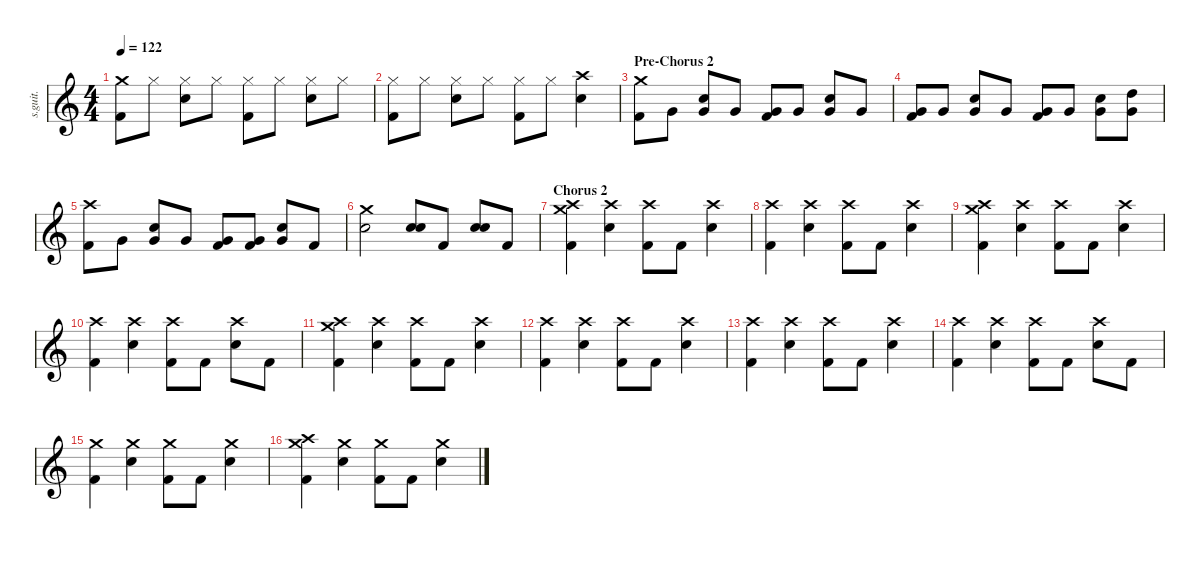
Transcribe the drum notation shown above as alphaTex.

\defaultSystemsLayout 4
\hideDynamics
\bracketExtendMode nobrackets
\track ("Neil Sanderson" "s.guit.") {instrument percussion}
\staff {score}
\articulation defaults
\ts (4 4)
\tempo 122
\clef g2
\ks c
("Crash medium (hit)" "Kick (hit) 2").8{lyrics (0 "") lyrics (1 "") lyrics (2 "") lyrics (3 "") lyrics (4 "") dy f} "Hi-Hat (closed)".8{lyrics (0 "") lyrics (1 "") lyrics (2 "") lyrics (3 "") lyrics (4 "")} ("Hi-Hat (closed)" "Snare (hit) 2").8{lyrics (0 "") lyrics (1 "") lyrics (2 "") lyrics (3 "") lyrics (4 "")} "Hi-Hat (closed)".8{lyrics (0 "") lyrics (1 "") lyrics (2 "") lyrics (3 "") lyrics (4 "")} ("Hi-Hat (closed)" "Kick (hit) 2").8{lyrics (0 "") lyrics (1 "") lyrics (2 "") lyrics (3 "") lyrics (4 "")} "Hi-Hat (closed)".8{lyrics (0 "") lyrics (1 "") lyrics (2 "") lyrics (3 "") lyrics (4 "")} ("Hi-Hat (closed)" "Snare (hit) 2").8{lyrics (0 "") lyrics (1 "") lyrics (2 "") lyrics (3 "") lyrics (4 "")} "Hi-Hat (closed)".8{lyrics (0 "") lyrics (1 "") lyrics (2 "") lyrics (3 "") lyrics (4 "")} |
("Hi-Hat (closed)" "Kick (hit) 2").8{lyrics (0 "") lyrics (1 "") lyrics (2 "") lyrics (3 "") lyrics (4 "")} "Hi-Hat (closed)".8{lyrics (0 "") lyrics (1 "") lyrics (2 "") lyrics (3 "") lyrics (4 "")} ("Hi-Hat (closed)" "Snare (hit) 2").8{lyrics (0 "") lyrics (1 "") lyrics (2 "") lyrics (3 "") lyrics (4 "")} "Hi-Hat (closed)".8{lyrics (0 "") lyrics (1 "") lyrics (2 "") lyrics (3 "") lyrics (4 "")} ("Hi-Hat (closed)" "Kick (hit) 2").8{lyrics (0 "") lyrics (1 "") lyrics (2 "") lyrics (3 "") lyrics (4 "")} "Hi-Hat (closed)".8{lyrics (0 "") lyrics (1 "") lyrics (2 "") lyrics (3 "") lyrics (4 "")} ("Crash high (hit)" "Snare (hit) 2").4{lyrics (0 "") lyrics (1 "") lyrics (2 "") lyrics (3 "") lyrics (4 "")} |
\section ("" "Pre-Chorus 2")
("Crash medium (hit)" "Kick (hit) 2").8{lyrics (0 "") lyrics (1 "") lyrics (2 "") lyrics (3 "") lyrics (4 "")} "Very Low Tom (hit)".8{lyrics (0 "") lyrics (1 "") lyrics (2 "") lyrics (3 "") lyrics (4 "")} ("Snare (hit) 2" "Very Low Tom (hit)").8{lyrics (0 "") lyrics (1 "") lyrics (2 "") lyrics (3 "") lyrics (4 "")} "Very Low Tom (hit)".8{lyrics (0 "") lyrics (1 "") lyrics (2 "") lyrics (3 "") lyrics (4 "")} ("Very Low Tom (hit)" "Kick (hit) 2").8{lyrics (0 "") lyrics (1 "") lyrics (2 "") lyrics (3 "") lyrics (4 "")} "Very Low Tom (hit)".8{lyrics (0 "") lyrics (1 "") lyrics (2 "") lyrics (3 "") lyrics (4 "")} ("Snare (hit) 2" "Very Low Tom (hit)").8{lyrics (0 "") lyrics (1 "") lyrics (2 "") lyrics (3 "") lyrics (4 "")} "Very Low Tom (hit)".8{lyrics (0 "") lyrics (1 "") lyrics (2 "") lyrics (3 "") lyrics (4 "")} |
("Very Low Tom (hit)" "Kick (hit) 2").8{lyrics (0 "") lyrics (1 "") lyrics (2 "") lyrics (3 "") lyrics (4 "")} "Very Low Tom (hit)".8{lyrics (0 "") lyrics (1 "") lyrics (2 "") lyrics (3 "") lyrics (4 "")} ("Snare (hit) 2" "Very Low Tom (hit)").8{lyrics (0 "") lyrics (1 "") lyrics (2 "") lyrics (3 "") lyrics (4 "")} "Very Low Tom (hit)".8{lyrics (0 "") lyrics (1 "") lyrics (2 "") lyrics (3 "") lyrics (4 "")} ("Very Low Tom (hit)" "Kick (hit) 2").8{lyrics (0 "") lyrics (1 "") lyrics (2 "") lyrics (3 "") lyrics (4 "")} "Very Low Tom (hit)".8{lyrics (0 "") lyrics (1 "") lyrics (2 "") lyrics (3 "") lyrics (4 "")} ("Snare (hit) 2" "Very Low Tom (hit)").8{lyrics (0 "") lyrics (1 "") lyrics (2 "") lyrics (3 "") lyrics (4 "")} ("High Tom (hit)" "Very Low Tom (hit)").8{lyrics (0 "") lyrics (1 "") lyrics (2 "") lyrics (3 "") lyrics (4 "")} |
("Crash high (hit)" "Kick (hit) 2").8{lyrics (0 "") lyrics (1 "") lyrics (2 "") lyrics (3 "") lyrics (4 "")} "Very Low Tom (hit)".8{lyrics (0 "") lyrics (1 "") lyrics (2 "") lyrics (3 "") lyrics (4 "")} ("Snare (hit) 2" "Very Low Tom (hit)").8{lyrics (0 "") lyrics (1 "") lyrics (2 "") lyrics (3 "") lyrics (4 "")} "Very Low Tom (hit)".8{lyrics (0 "") lyrics (1 "") lyrics (2 "") lyrics (3 "") lyrics (4 "")} ("Very Low Tom (hit)" "Kick (hit) 2").8{lyrics (0 "") lyrics (1 "") lyrics (2 "") lyrics (3 "") lyrics (4 "")} ("Very Low Tom (hit)" "Kick (hit) 2").8{lyrics (0 "") lyrics (1 "") lyrics (2 "") lyrics (3 "") lyrics (4 "")} ("Snare (hit) 2" "Very Low Tom (hit)").8{lyrics (0 "") lyrics (1 "") lyrics (2 "") lyrics (3 "") lyrics (4 "")} "Kick (hit) 2".8{lyrics (0 "") lyrics (1 "") lyrics (2 "") lyrics (3 "") lyrics (4 "")} |
("Crash medium (hit)" "Snare (hit) 2").2{lyrics (0 "") lyrics (1 "") lyrics (2 "") lyrics (3 "") lyrics (4 "")} ("Snare (hit) 2" "Snare (hit) 2").8{bd 30 lyrics (0 "") lyrics (1 "") lyrics (2 "") lyrics (3 "") lyrics (4 "")} "Kick (hit) 2".8{lyrics (0 "") lyrics (1 "") lyrics (2 "") lyrics (3 "") lyrics (4 "")} ("Snare (hit) 2" "Snare (hit) 2").8{bd 30 lyrics (0 "") lyrics (1 "") lyrics (2 "") lyrics (3 "") lyrics (4 "")} "Kick (hit) 2".8{lyrics (0 "") lyrics (1 "") lyrics (2 "") lyrics (3 "") lyrics (4 "")} |
\section ("" "Chorus 2")
("Crash high (hit)" "Crash medium (hit)" "Kick (hit) 2").4{lyrics (0 "") lyrics (1 "") lyrics (2 "") lyrics (3 "") lyrics (4 "")} ("Crash high (hit)" "Snare (hit) 2").4{lyrics (0 "") lyrics (1 "") lyrics (2 "") lyrics (3 "") lyrics (4 "")} ("Crash high (hit)" "Kick (hit) 2").8{lyrics (0 "") lyrics (1 "") lyrics (2 "") lyrics (3 "") lyrics (4 "")} "Kick (hit) 2".8{lyrics (0 "") lyrics (1 "") lyrics (2 "") lyrics (3 "") lyrics (4 "")} ("Crash high (hit)" "Snare (hit) 2").4{lyrics (0 "") lyrics (1 "") lyrics (2 "") lyrics (3 "") lyrics (4 "")} |
("Crash high (hit)" "Kick (hit) 2").4{lyrics (0 "") lyrics (1 "") lyrics (2 "") lyrics (3 "") lyrics (4 "")} ("Crash high (hit)" "Snare (hit) 2").4{lyrics (0 "") lyrics (1 "") lyrics (2 "") lyrics (3 "") lyrics (4 "")} ("Crash high (hit)" "Kick (hit) 2").8{lyrics (0 "") lyrics (1 "") lyrics (2 "") lyrics (3 "") lyrics (4 "")} "Kick (hit) 2".8{lyrics (0 "") lyrics (1 "") lyrics (2 "") lyrics (3 "") lyrics (4 "")} ("Crash high (hit)" "Snare (hit) 2").4{lyrics (0 "") lyrics (1 "") lyrics (2 "") lyrics (3 "") lyrics (4 "")} |
("Crash high (hit)" "Crash medium (hit)" "Kick (hit) 2").4{lyrics (0 "") lyrics (1 "") lyrics (2 "") lyrics (3 "") lyrics (4 "")} ("Crash high (hit)" "Snare (hit) 2").4{lyrics (0 "") lyrics (1 "") lyrics (2 "") lyrics (3 "") lyrics (4 "")} ("Crash high (hit)" "Kick (hit) 2").8{lyrics (0 "") lyrics (1 "") lyrics (2 "") lyrics (3 "") lyrics (4 "")} "Kick (hit) 2".8{lyrics (0 "") lyrics (1 "") lyrics (2 "") lyrics (3 "") lyrics (4 "")} ("Crash high (hit)" "Snare (hit) 2").4{lyrics (0 "") lyrics (1 "") lyrics (2 "") lyrics (3 "") lyrics (4 "")} |
("Crash high (hit)" "Kick (hit) 2").4{lyrics (0 "") lyrics (1 "") lyrics (2 "") lyrics (3 "") lyrics (4 "")} ("Crash high (hit)" "Snare (hit) 2").4{lyrics (0 "") lyrics (1 "") lyrics (2 "") lyrics (3 "") lyrics (4 "")} ("Crash high (hit)" "Kick (hit) 2").8{lyrics (0 "") lyrics (1 "") lyrics (2 "") lyrics (3 "") lyrics (4 "")} "Kick (hit) 2".8{lyrics (0 "") lyrics (1 "") lyrics (2 "") lyrics (3 "") lyrics (4 "")} ("Crash high (hit)" "Snare (hit) 2").8{lyrics (0 "") lyrics (1 "") lyrics (2 "") lyrics (3 "") lyrics (4 "")} "Kick (hit) 2".8{lyrics (0 "") lyrics (1 "") lyrics (2 "") lyrics (3 "") lyrics (4 "")} |
("Crash high (hit)" "Crash medium (hit)" "Kick (hit) 2").4{lyrics (0 "") lyrics (1 "") lyrics (2 "") lyrics (3 "") lyrics (4 "")} ("Crash high (hit)" "Snare (hit) 2").4{lyrics (0 "") lyrics (1 "") lyrics (2 "") lyrics (3 "") lyrics (4 "")} ("Crash high (hit)" "Kick (hit) 2").8{lyrics (0 "") lyrics (1 "") lyrics (2 "") lyrics (3 "") lyrics (4 "")} "Kick (hit) 2".8{lyrics (0 "") lyrics (1 "") lyrics (2 "") lyrics (3 "") lyrics (4 "")} ("Crash high (hit)" "Snare (hit) 2").4{lyrics (0 "") lyrics (1 "") lyrics (2 "") lyrics (3 "") lyrics (4 "")} |
("Crash high (hit)" "Kick (hit) 2").4{lyrics (0 "") lyrics (1 "") lyrics (2 "") lyrics (3 "") lyrics (4 "")} ("Crash high (hit)" "Snare (hit) 2").4{lyrics (0 "") lyrics (1 "") lyrics (2 "") lyrics (3 "") lyrics (4 "")} ("Crash high (hit)" "Kick (hit) 2").8{lyrics (0 "") lyrics (1 "") lyrics (2 "") lyrics (3 "") lyrics (4 "")} "Kick (hit) 2".8{lyrics (0 "") lyrics (1 "") lyrics (2 "") lyrics (3 "") lyrics (4 "")} ("Crash high (hit)" "Snare (hit) 2").4{lyrics (0 "") lyrics (1 "") lyrics (2 "") lyrics (3 "") lyrics (4 "")} |
("Crash high (hit)" "Kick (hit) 2").4{lyrics (0 "") lyrics (1 "") lyrics (2 "") lyrics (3 "") lyrics (4 "")} ("Crash high (hit)" "Snare (hit) 2").4{lyrics (0 "") lyrics (1 "") lyrics (2 "") lyrics (3 "") lyrics (4 "")} ("Crash high (hit)" "Kick (hit) 2").8{lyrics (0 "") lyrics (1 "") lyrics (2 "") lyrics (3 "") lyrics (4 "")} "Kick (hit) 2".8{lyrics (0 "") lyrics (1 "") lyrics (2 "") lyrics (3 "") lyrics (4 "")} ("Crash high (hit)" "Snare (hit) 2").4{lyrics (0 "") lyrics (1 "") lyrics (2 "") lyrics (3 "") lyrics (4 "")} |
("Crash high (hit)" "Kick (hit) 2").4{lyrics (0 "") lyrics (1 "") lyrics (2 "") lyrics (3 "") lyrics (4 "")} ("Crash high (hit)" "Snare (hit) 2").4{lyrics (0 "") lyrics (1 "") lyrics (2 "") lyrics (3 "") lyrics (4 "")} ("Crash high (hit)" "Kick (hit) 2").8{lyrics (0 "") lyrics (1 "") lyrics (2 "") lyrics (3 "") lyrics (4 "")} "Kick (hit) 2".8{lyrics (0 "") lyrics (1 "") lyrics (2 "") lyrics (3 "") lyrics (4 "")} ("Crash high (hit)" "Snare (hit) 2").8{lyrics (0 "") lyrics (1 "") lyrics (2 "") lyrics (3 "") lyrics (4 "")} "Kick (hit) 2".8{lyrics (0 "") lyrics (1 "") lyrics (2 "") lyrics (3 "") lyrics (4 "")} |
("Crash medium (hit)" "Kick (hit) 2").4{lyrics (0 "") lyrics (1 "") lyrics (2 "") lyrics (3 "") lyrics (4 "")} ("Crash medium (hit)" "Snare (hit) 2").4{lyrics (0 "") lyrics (1 "") lyrics (2 "") lyrics (3 "") lyrics (4 "")} ("Crash medium (hit)" "Kick (hit) 2").8{lyrics (0 "") lyrics (1 "") lyrics (2 "") lyrics (3 "") lyrics (4 "")} "Kick (hit) 2".8{lyrics (0 "") lyrics (1 "") lyrics (2 "") lyrics (3 "") lyrics (4 "")} ("Crash medium (hit)" "Snare (hit) 2").4{lyrics (0 "") lyrics (1 "") lyrics (2 "") lyrics (3 "") lyrics (4 "")} |
("Crash high (hit)" "Crash medium (hit)" "Kick (hit) 2").4{lyrics (0 "") lyrics (1 "") lyrics (2 "") lyrics (3 "") lyrics (4 "")} ("Crash medium (hit)" "Snare (hit) 2").4{lyrics (0 "") lyrics (1 "") lyrics (2 "") lyrics (3 "") lyrics (4 "")} ("Crash medium (hit)" "Kick (hit) 2").8{lyrics (0 "") lyrics (1 "") lyrics (2 "") lyrics (3 "") lyrics (4 "")} "Kick (hit) 2".8{lyrics (0 "") lyrics (1 "") lyrics (2 "") lyrics (3 "") lyrics (4 "")} ("Crash medium (hit)" "Snare (hit) 2").4{lyrics (0 "") lyrics (1 "") lyrics (2 "") lyrics (3 "") lyrics (4 "")}
